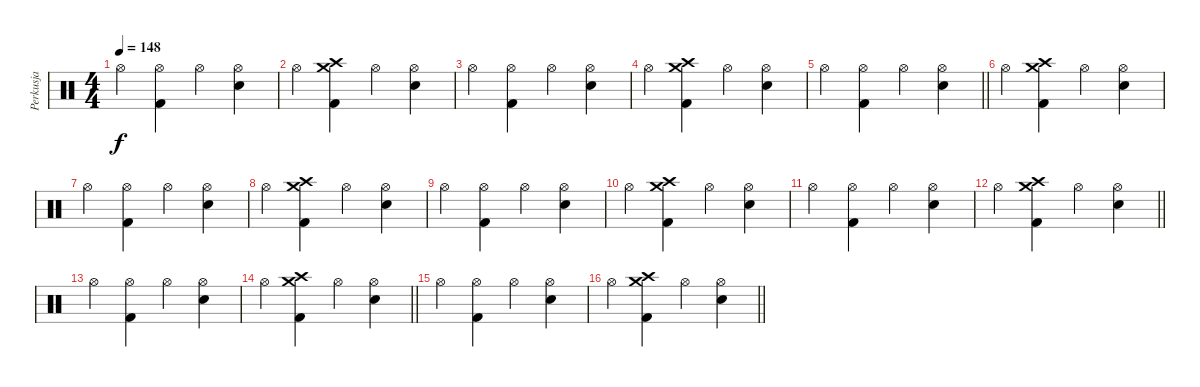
\track ("Perkusja" "Perkusja") {instrument percussion}
\staff {score}
\articulation defaults
\ts (4 4)
\tempo 148
\clef neutral
\ks c "Hi-Hat (open)".4{dy f}
("Hi-Hat (open)" "Kick (hit) 2").4 "Hi-Hat (open)".4 ("Hi-Hat (open)" "Snare (hit) 2").4 |
"Hi-Hat (open)".4 ("Crash high (hit)" "Crash medium (hit)" "Kick (hit) 2").4 "Hi-Hat (open)".4 ("Hi-Hat (open)" "Snare (hit) 2").4 |
"Hi-Hat (open)".4 ("Hi-Hat (open)" "Kick (hit) 2").4 "Hi-Hat (open)".4 ("Hi-Hat (open)" "Snare (hit) 2").4 |
"Hi-Hat (open)".4 ("Crash high (hit)" "Crash medium (hit)" "Kick (hit) 2").4 "Hi-Hat (open)".4 ("Hi-Hat (open)" "Snare (hit) 2").4 |
\barLineRight lightlight "Hi-Hat (open)".4
("Hi-Hat (open)" "Kick (hit) 2").4 "Hi-Hat (open)".4 ("Hi-Hat (open)" "Snare (hit) 2").4 |
"Hi-Hat (open)".4 ("Crash high (hit)" "Crash medium (hit)" "Kick (hit) 2").4 "Hi-Hat (open)".4 ("Hi-Hat (open)" "Snare (hit) 2").4 |
"Hi-Hat (open)".4 ("Hi-Hat (open)" "Kick (hit) 2").4 "Hi-Hat (open)".4 ("Hi-Hat (open)" "Snare (hit) 2").4 |
"Hi-Hat (open)".4 ("Crash high (hit)" "Crash medium (hit)" "Kick (hit) 2").4 "Hi-Hat (open)".4 ("Hi-Hat (open)" "Snare (hit) 2").4 |
"Hi-Hat (open)".4 ("Hi-Hat (open)" "Kick (hit) 2").4 "Hi-Hat (open)".4 ("Hi-Hat (open)" "Snare (hit) 2").4 |
"Hi-Hat (open)".4 ("Crash high (hit)" "Crash medium (hit)" "Kick (hit) 2").4 "Hi-Hat (open)".4 ("Hi-Hat (open)" "Snare (hit) 2").4 |
"Hi-Hat (open)".4 ("Hi-Hat (open)" "Kick (hit) 2").4 "Hi-Hat (open)".4 ("Hi-Hat (open)" "Snare (hit) 2").4 |
\barLineRight lightlight "Hi-Hat (open)".4
("Crash high (hit)" "Crash medium (hit)" "Kick (hit) 2").4 "Hi-Hat (open)".4 ("Hi-Hat (open)" "Snare (hit) 2").4 |
"Hi-Hat (open)".4 ("Hi-Hat (open)" "Kick (hit) 2").4 "Hi-Hat (open)".4 ("Hi-Hat (open)" "Snare (hit) 2").4 |
\barLineRight lightlight "Hi-Hat (open)".4
("Crash high (hit)" "Crash medium (hit)" "Kick (hit) 2").4 "Hi-Hat (open)".4 ("Hi-Hat (open)" "Snare (hit) 2").4 |
"Hi-Hat (open)".4 ("Hi-Hat (open)" "Kick (hit) 2").4 "Hi-Hat (open)".4 ("Hi-Hat (open)" "Snare (hit) 2").4 |
\barLineRight lightlight "Hi-Hat (open)".4
("Crash high (hit)" "Crash medium (hit)" "Kick (hit) 2").4 "Hi-Hat (open)".4 ("Hi-Hat (open)" "Snare (hit) 2").4
